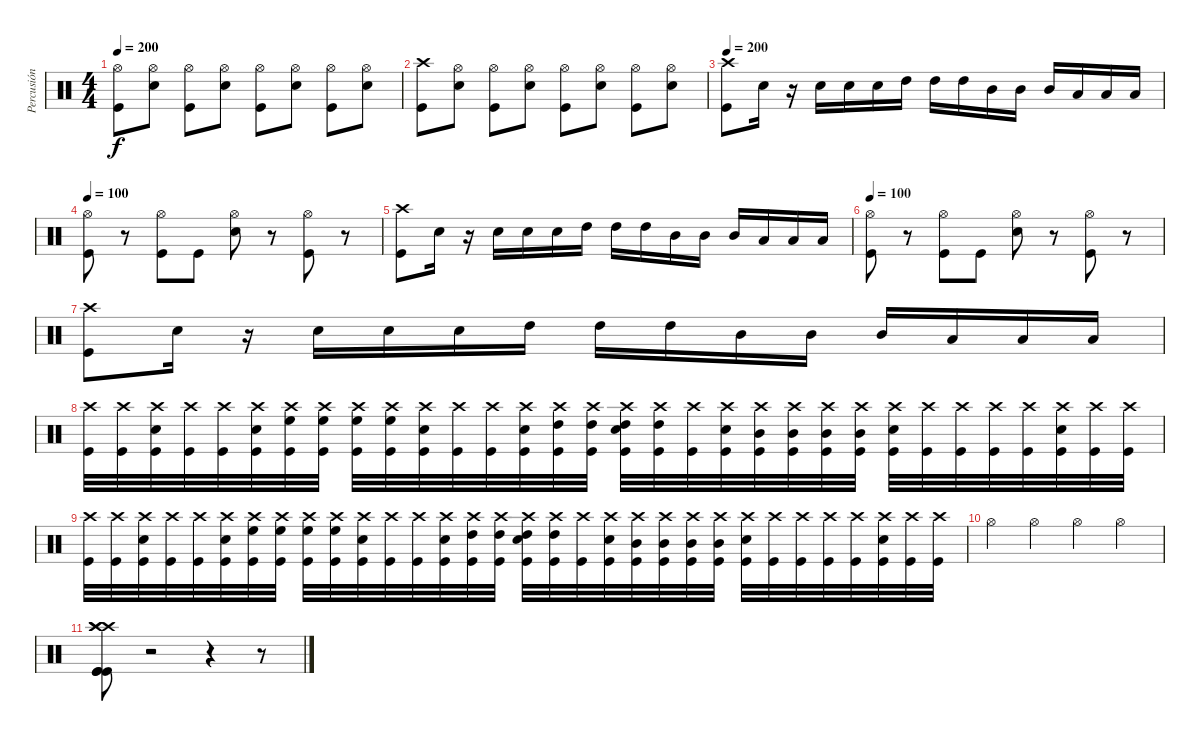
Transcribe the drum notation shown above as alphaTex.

\track ("Percusión" "Percusión") {instrument percussion}
\staff {score}
\articulation defaults
\ts (4 4)
\tempo 200
\clef neutral
\ks c
("Hi-Hat (open)" "Kick (hit)").8{dy f} ("Hi-Hat (open)" "Snare (hit) 2").8 ("Hi-Hat (open)" "Kick (hit)").8 ("Hi-Hat (open)" "Snare (hit) 2").8 ("Hi-Hat (open)" "Kick (hit)").8 ("Hi-Hat (open)" "Snare (hit) 2").8 ("Hi-Hat (open)" "Kick (hit)").8 ("Hi-Hat (open)" "Snare (hit) 2").8 |
("Crash high (hit)" "Kick (hit)").8 ("Hi-Hat (open)" "Snare (hit) 2").8 ("Hi-Hat (open)" "Kick (hit)").8 ("Hi-Hat (open)" "Snare (hit) 2").8 ("Hi-Hat (open)" "Kick (hit)").8 ("Hi-Hat (open)" "Snare (hit) 2").8 ("Hi-Hat (open)" "Kick (hit)").8 ("Hi-Hat (open)" "Snare (hit) 2").8 |
\tempo 200
("Crash high (hit)" "Kick (hit)").8 "Snare (hit) 2".16 r.16 "Snare (hit) 2".16 "Snare (hit) 2".16 "Snare (hit) 2".16 "High Tom (hit)".16 "High Tom (hit)".16 "High Tom (hit)".16 "Mid Tom (hit)".16 "Mid Tom (hit)".16 "Mid Tom (hit)".16 "Low Tom (hit)".16 "Low Tom (hit)".16 "Low Tom (hit)".16 |
\tempo 100
("Hi-Hat (open)" "Kick (hit)").8 r.8 ("Hi-Hat (open)" "Kick (hit)").8 "Kick (hit)".8 ("Hi-Hat (open)" "Snare (hit) 2").8 r.8 ("Hi-Hat (open)" "Kick (hit)").8 r.8 |
("Crash high (hit)" "Kick (hit)").8 "Snare (hit) 2".16 r.16 "Snare (hit) 2".16 "Snare (hit) 2".16 "Snare (hit) 2".16 "High Tom (hit)".16 "High Tom (hit)".16 "High Tom (hit)".16 "Mid Tom (hit)".16 "Mid Tom (hit)".16 "Mid Tom (hit)".16 "Low Tom (hit)".16 "Low Tom (hit)".16 "Low Tom (hit)".16 |
\tempo 100
("Hi-Hat (open)" "Kick (hit)").8 r.8 ("Hi-Hat (open)" "Kick (hit)").8 "Kick (hit)".8 ("Hi-Hat (open)" "Snare (hit) 2").8 r.8 ("Hi-Hat (open)" "Kick (hit)").8 r.8 |
("Crash high (hit)" "Kick (hit)").8 "Snare (hit) 2".16 r.16 "Snare (hit) 2".16 "Snare (hit) 2".16 "Snare (hit) 2".16 "High Tom (hit)".16 "High Tom (hit)".16 "High Tom (hit)".16 "Mid Tom (hit)".16 "Mid Tom (hit)".16 "Mid Tom (hit)".16 "Low Tom (hit)".16 "Low Tom (hit)".16 "Low Tom (hit)".16 |
("Crash high (hit)" "Kick (hit)").32 ("Crash high (hit)" "Kick (hit)").32 ("Snare (hit) 2" "Crash high (hit)" "Kick (hit)").32 ("Crash high (hit)" "Kick (hit)").32 ("Crash high (hit)" "Kick (hit)").32 ("Snare (hit) 2" "Crash high (hit)" "Kick (hit)").32 ("High Floor Tom (hit)" "Crash high (hit)" "Kick (hit)").32 ("High Floor Tom (hit)" "Crash high (hit)" "Kick (hit)").32 ("High Floor Tom (hit)" "Crash high (hit)" "Kick (hit)").32 ("High Floor Tom (hit)" "Crash high (hit)" "Kick (hit)").32 ("Snare (hit) 2" "Crash high (hit)" "Kick (hit)").32 ("Crash high (hit)" "Kick (hit)").32 ("Crash high (hit)" "Kick (hit)").32 ("Snare (hit) 2" "Crash high (hit)" "Kick (hit)").32 ("High Tom (hit)" "Crash high (hit)" "Kick (hit)").32 ("High Tom (hit)" "Crash high (hit)" "Kick (hit)").32 ("High Tom (hit)" "Snare (hit) 2" "Crash high (hit)" "Kick (hit)").32 ("High Tom (hit)" "Crash high (hit)" "Kick (hit)").32 ("Crash high (hit)" "Kick (hit)").32 ("Snare (hit) 2" "Crash high (hit)" "Kick (hit)").32 ("Mid Tom (hit)" "Crash high (hit)" "Kick (hit)").32 ("Mid Tom (hit)" "Crash high (hit)" "Kick (hit)").32 ("Mid Tom (hit)" "Crash high (hit)" "Kick (hit)").32 ("Mid Tom (hit)" "Crash high (hit)" "Kick (hit)").32 ("Snare (hit) 2" "Crash high (hit)" "Kick (hit)").32 ("Crash high (hit)" "Kick (hit)").32 ("Crash high (hit)" "Kick (hit)").32 ("Crash high (hit)" "Kick (hit)").32 ("Crash high (hit)" "Kick (hit)").32 ("Snare (hit) 2" "Crash high (hit)" "Kick (hit)").32 ("Crash high (hit)" "Kick (hit)").32 ("Crash high (hit)" "Kick (hit)").32 |
("Crash high (hit)" "Kick (hit)").32 ("Crash high (hit)" "Kick (hit)").32 ("Snare (hit) 2" "Crash high (hit)" "Kick (hit)").32 ("Crash high (hit)" "Kick (hit)").32 ("Crash high (hit)" "Kick (hit)").32 ("Snare (hit) 2" "Crash high (hit)" "Kick (hit)").32 ("High Floor Tom (hit)" "Crash high (hit)" "Kick (hit)").32 ("High Floor Tom (hit)" "Crash high (hit)" "Kick (hit)").32 ("High Floor Tom (hit)" "Crash high (hit)" "Kick (hit)").32 ("High Floor Tom (hit)" "Crash high (hit)" "Kick (hit)").32 ("Snare (hit) 2" "Crash high (hit)" "Kick (hit)").32 ("Crash high (hit)" "Kick (hit)").32 ("Crash high (hit)" "Kick (hit)").32 ("Snare (hit) 2" "Crash high (hit)" "Kick (hit)").32 ("High Tom (hit)" "Crash high (hit)" "Kick (hit)").32 ("High Tom (hit)" "Crash high (hit)" "Kick (hit)").32 ("High Tom (hit)" "Snare (hit) 2" "Crash high (hit)" "Kick (hit)").32 ("High Tom (hit)" "Crash high (hit)" "Kick (hit)").32 ("Crash high (hit)" "Kick (hit)").32 ("Snare (hit) 2" "Crash high (hit)" "Kick (hit)").32 ("Mid Tom (hit)" "Crash high (hit)" "Kick (hit)").32 ("Mid Tom (hit)" "Crash high (hit)" "Kick (hit)").32 ("Mid Tom (hit)" "Crash high (hit)" "Kick (hit)").32 ("Mid Tom (hit)" "Crash high (hit)" "Kick (hit)").32 ("Snare (hit) 2" "Crash high (hit)" "Kick (hit)").32 ("Crash high (hit)" "Kick (hit)").32 ("Crash high (hit)" "Kick (hit)").32 ("Crash high (hit)" "Kick (hit)").32 ("Crash high (hit)" "Kick (hit)").32 ("Snare (hit) 2" "Crash high (hit)" "Kick (hit)").32 ("Crash high (hit)" "Kick (hit)").32 ("Crash high (hit)" "Kick (hit)").32 |
"Hi-Hat (open)".4 "Hi-Hat (open)".4 "Hi-Hat (open)".4 "Hi-Hat (open)".4 |
("Crash high (hit)" "Kick (hit)" "Crash high (hit)" "Kick (hit)" "Crash high (hit)" "Kick (hit)").8 r.2 r.4 r.8
